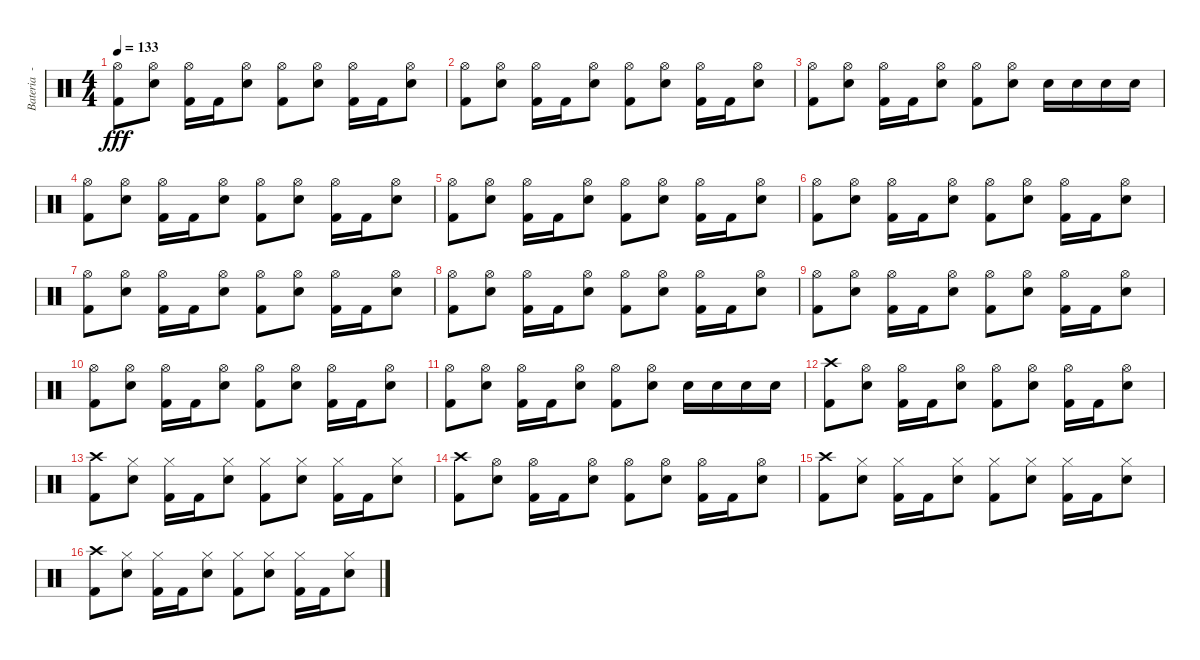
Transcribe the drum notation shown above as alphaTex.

\track ("Bateria  - Larzon" "Bateria  -") {instrument percussion}
\staff {score}
\articulation defaults
\ts (4 4)
\tempo 133
\clef neutral
\ks c
("Kick (hit) 2" "Hi-Hat (open)").8{dy fff} ("Electric Snare (hit)" "Hi-Hat (open)").8 ("Kick (hit) 2" "Hi-Hat (open)").16 "Kick (hit) 2".16 ("Electric Snare (hit)" "Hi-Hat (open)").8 ("Kick (hit) 2" "Hi-Hat (open)").8 ("Electric Snare (hit)" "Hi-Hat (open)").8 ("Kick (hit) 2" "Hi-Hat (open)").16 "Kick (hit) 2".16 ("Electric Snare (hit)" "Hi-Hat (open)").8 |
("Kick (hit) 2" "Hi-Hat (open)").8 ("Electric Snare (hit)" "Hi-Hat (open)").8 ("Kick (hit) 2" "Hi-Hat (open)").16 "Kick (hit) 2".16 ("Electric Snare (hit)" "Hi-Hat (open)").8 ("Kick (hit) 2" "Hi-Hat (open)").8 ("Electric Snare (hit)" "Hi-Hat (open)").8 ("Kick (hit) 2" "Hi-Hat (open)").16 "Kick (hit) 2".16 ("Electric Snare (hit)" "Hi-Hat (open)").8 |
("Kick (hit) 2" "Hi-Hat (open)").8 ("Electric Snare (hit)" "Hi-Hat (open)").8 ("Kick (hit) 2" "Hi-Hat (open)").16 "Kick (hit) 2".16 ("Electric Snare (hit)" "Hi-Hat (open)").8 ("Kick (hit) 2" "Hi-Hat (open)").8 ("Electric Snare (hit)" "Hi-Hat (open)").8 "Electric Snare (hit)".16 "Electric Snare (hit)".16 "Electric Snare (hit)".16 "Electric Snare (hit)".16 |
("Kick (hit) 2" "Hi-Hat (open)").8 ("Electric Snare (hit)" "Hi-Hat (open)").8 ("Kick (hit) 2" "Hi-Hat (open)").16 "Kick (hit) 2".16 ("Electric Snare (hit)" "Hi-Hat (open)").8 ("Kick (hit) 2" "Hi-Hat (open)").8 ("Electric Snare (hit)" "Hi-Hat (open)").8 ("Kick (hit) 2" "Hi-Hat (open)").16 "Kick (hit) 2".16 ("Electric Snare (hit)" "Hi-Hat (open)").8 |
("Kick (hit) 2" "Hi-Hat (open)").8 ("Electric Snare (hit)" "Hi-Hat (open)").8 ("Kick (hit) 2" "Hi-Hat (open)").16 "Kick (hit) 2".16 ("Electric Snare (hit)" "Hi-Hat (open)").8 ("Kick (hit) 2" "Hi-Hat (open)").8 ("Electric Snare (hit)" "Hi-Hat (open)").8 ("Kick (hit) 2" "Hi-Hat (open)").16 "Kick (hit) 2".16 ("Electric Snare (hit)" "Hi-Hat (open)").8 |
("Kick (hit) 2" "Hi-Hat (open)").8 ("Electric Snare (hit)" "Hi-Hat (open)").8 ("Kick (hit) 2" "Hi-Hat (open)").16 "Kick (hit) 2".16 ("Electric Snare (hit)" "Hi-Hat (open)").8 ("Kick (hit) 2" "Hi-Hat (open)").8 ("Electric Snare (hit)" "Hi-Hat (open)").8 ("Kick (hit) 2" "Hi-Hat (open)").16 "Kick (hit) 2".16 ("Electric Snare (hit)" "Hi-Hat (open)").8 |
("Kick (hit) 2" "Hi-Hat (open)").8 ("Electric Snare (hit)" "Hi-Hat (open)").8 ("Kick (hit) 2" "Hi-Hat (open)").16 "Kick (hit) 2".16 ("Electric Snare (hit)" "Hi-Hat (open)").8 ("Kick (hit) 2" "Hi-Hat (open)").8 ("Electric Snare (hit)" "Hi-Hat (open)").8 ("Kick (hit) 2" "Hi-Hat (open)").16 "Kick (hit) 2".16 ("Electric Snare (hit)" "Hi-Hat (open)").8 |
("Kick (hit) 2" "Hi-Hat (open)").8 ("Electric Snare (hit)" "Hi-Hat (open)").8 ("Kick (hit) 2" "Hi-Hat (open)").16 "Kick (hit) 2".16 ("Electric Snare (hit)" "Hi-Hat (open)").8 ("Kick (hit) 2" "Hi-Hat (open)").8 ("Electric Snare (hit)" "Hi-Hat (open)").8 ("Kick (hit) 2" "Hi-Hat (open)").16 "Kick (hit) 2".16 ("Electric Snare (hit)" "Hi-Hat (open)").8 |
("Kick (hit) 2" "Hi-Hat (open)").8 ("Electric Snare (hit)" "Hi-Hat (open)").8 ("Kick (hit) 2" "Hi-Hat (open)").16 "Kick (hit) 2".16 ("Electric Snare (hit)" "Hi-Hat (open)").8 ("Kick (hit) 2" "Hi-Hat (open)").8 ("Electric Snare (hit)" "Hi-Hat (open)").8 ("Kick (hit) 2" "Hi-Hat (open)").16 "Kick (hit) 2".16 ("Electric Snare (hit)" "Hi-Hat (open)").8 |
("Kick (hit) 2" "Hi-Hat (open)").8 ("Electric Snare (hit)" "Hi-Hat (open)").8 ("Kick (hit) 2" "Hi-Hat (open)").16 "Kick (hit) 2".16 ("Electric Snare (hit)" "Hi-Hat (open)").8 ("Kick (hit) 2" "Hi-Hat (open)").8 ("Electric Snare (hit)" "Hi-Hat (open)").8 ("Kick (hit) 2" "Hi-Hat (open)").16 "Kick (hit) 2".16 ("Electric Snare (hit)" "Hi-Hat (open)").8 |
("Kick (hit) 2" "Hi-Hat (open)").8 ("Electric Snare (hit)" "Hi-Hat (open)").8 ("Kick (hit) 2" "Hi-Hat (open)").16 "Kick (hit) 2".16 ("Electric Snare (hit)" "Hi-Hat (open)").8 ("Kick (hit) 2" "Hi-Hat (open)").8 ("Electric Snare (hit)" "Hi-Hat (open)").8 "Electric Snare (hit)".16 "Electric Snare (hit)".16 "Electric Snare (hit)".16 "Electric Snare (hit)".16 |
("Kick (hit) 2" "Crash high (hit)").8 ("Electric Snare (hit)" "Hi-Hat (open)").8 ("Kick (hit) 2" "Hi-Hat (open)").16 "Kick (hit) 2".16 ("Electric Snare (hit)" "Hi-Hat (open)").8 ("Kick (hit) 2" "Hi-Hat (open)").8 ("Electric Snare (hit)" "Hi-Hat (open)").8 ("Kick (hit) 2" "Hi-Hat (open)").16 "Kick (hit) 2".16 ("Electric Snare (hit)" "Hi-Hat (open)").8 |
("Kick (hit) 2" "Crash high (hit)").8 ("Electric Snare (hit)" "Hi-Hat (closed)").8 ("Kick (hit) 2" "Hi-Hat (closed)").16 "Kick (hit) 2".16 ("Electric Snare (hit)" "Hi-Hat (closed)").8 ("Kick (hit) 2" "Hi-Hat (closed)").8 ("Electric Snare (hit)" "Hi-Hat (closed)").8 ("Kick (hit) 2" "Hi-Hat (closed)").16 "Kick (hit) 2".16 ("Electric Snare (hit)" "Hi-Hat (closed)").8 |
("Kick (hit) 2" "Crash high (hit)").8 ("Electric Snare (hit)" "Hi-Hat (open)").8 ("Kick (hit) 2" "Hi-Hat (open)").16 "Kick (hit) 2".16 ("Electric Snare (hit)" "Hi-Hat (open)").8 ("Kick (hit) 2" "Hi-Hat (open)").8 ("Electric Snare (hit)" "Hi-Hat (open)").8 ("Kick (hit) 2" "Hi-Hat (open)").16 "Kick (hit) 2".16 ("Electric Snare (hit)" "Hi-Hat (open)").8 |
("Kick (hit) 2" "Crash high (hit)").8 ("Electric Snare (hit)" "Hi-Hat (closed)").8 ("Kick (hit) 2" "Hi-Hat (closed)").16 "Kick (hit) 2".16 ("Electric Snare (hit)" "Hi-Hat (closed)").8 ("Kick (hit) 2" "Hi-Hat (closed)").8 ("Electric Snare (hit)" "Hi-Hat (closed)").8 ("Kick (hit) 2" "Hi-Hat (closed)").16 "Kick (hit) 2".16 ("Electric Snare (hit)" "Hi-Hat (closed)").8 |
("Kick (hit) 2" "Crash high (hit)").8 ("Electric Snare (hit)" "Hi-Hat (closed)").8 ("Kick (hit) 2" "Hi-Hat (closed)").16 "Kick (hit) 2".16 ("Electric Snare (hit)" "Hi-Hat (closed)").8 ("Kick (hit) 2" "Hi-Hat (closed)").8 ("Electric Snare (hit)" "Hi-Hat (closed)").8 ("Kick (hit) 2" "Hi-Hat (closed)").16 "Kick (hit) 2".16 ("Electric Snare (hit)" "Hi-Hat (closed)").8
